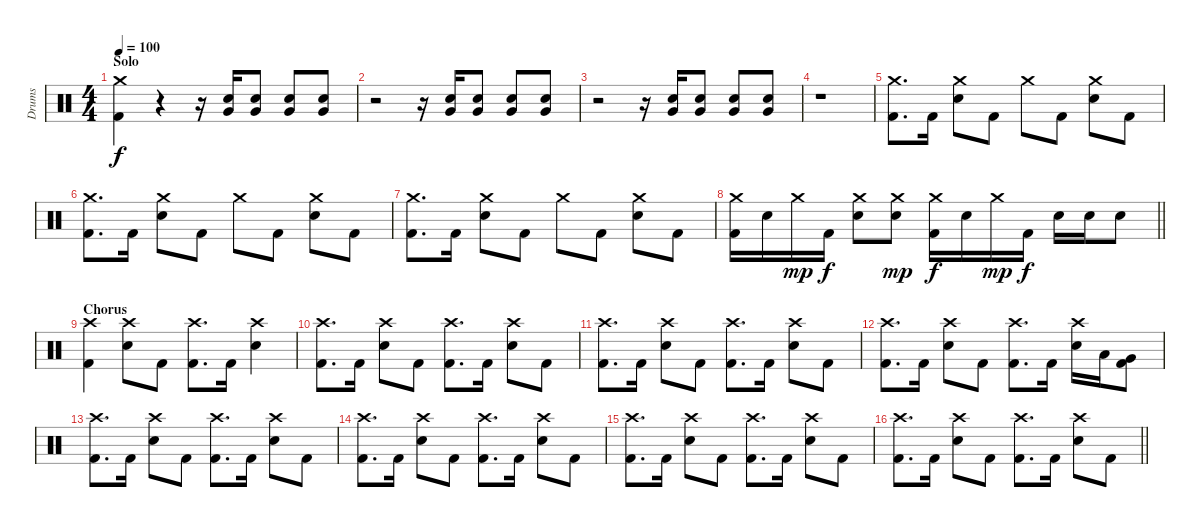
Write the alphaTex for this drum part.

\track ("Drums" "Drums") {instrument percussion}
\staff {score}
\articulation defaults
\ts (4 4)
\section ("" "Solo")
\tempo 100
\clef neutral
\ks c
("Crash medium (hit)" "Kick (hit) 2").4{dy f} r.4 r.16 ("Snare (hit) 2" "Very Low Tom (hit)").16 ("Snare (hit) 2" "Very Low Tom (hit)").8 ("Snare (hit) 2" "Very Low Tom (hit)").8 ("Snare (hit) 2" "Very Low Tom (hit)").8 |
r.2 r.16 ("Snare (hit) 2" "Very Low Tom (hit)").16 ("Snare (hit) 2" "Very Low Tom (hit)").8 ("Snare (hit) 2" "Very Low Tom (hit)").8 ("Snare (hit) 2" "Very Low Tom (hit)").8 |
r.2 r.16 ("Snare (hit) 2" "Very Low Tom (hit)").16 ("Snare (hit) 2" "Very Low Tom (hit)").8 ("Snare (hit) 2" "Very Low Tom (hit)").8 ("Snare (hit) 2" "Very Low Tom (hit)").8 |
r.1 |
("Crash medium (hit)" "Kick (hit) 2").8{d} "Kick (hit) 2".16 ("Crash medium (hit)" "Snare (hit) 2").8 "Kick (hit) 2".8 "Crash medium (hit)".8 "Kick (hit) 2".8 ("Crash medium (hit)" "Snare (hit) 2").8 "Kick (hit) 2".8 |
("Crash medium (hit)" "Kick (hit) 2").8{d} "Kick (hit) 2".16 ("Crash medium (hit)" "Snare (hit) 2").8 "Kick (hit) 2".8 "Crash medium (hit)".8 "Kick (hit) 2".8 ("Crash medium (hit)" "Snare (hit) 2").8 "Kick (hit) 2".8 |
("Crash medium (hit)" "Kick (hit) 2").8{d} "Kick (hit) 2".16 ("Crash medium (hit)" "Snare (hit) 2").8 "Kick (hit) 2".8 "Crash medium (hit)".8 "Kick (hit) 2".8 ("Crash medium (hit)" "Snare (hit) 2").8 "Kick (hit) 2".8 |
\barLineRight lightlight
("Crash medium (hit)" "Kick (hit) 2").16 "Snare (hit) 2".16 "Crash medium (hit)".16{dy mp} "Kick (hit) 2".16{dy f} ("Crash medium (hit)" "Snare (hit) 2").8 ("Crash medium (hit)" "Snare (hit) 2").8{dy mp} ("Crash medium (hit)" "Kick (hit) 2").16{dy f} "Snare (hit) 2".16 "Crash medium (hit)".16{dy mp} "Kick (hit) 2".16{dy f} "Snare (hit) 2".16 "Snare (hit) 2".16 "Snare (hit) 2".8 |
\section ("" "Chorus")
("Crash high (hit)" "Kick (hit) 2").4 ("Crash high (hit)" "Snare (hit) 2").8 "Kick (hit) 2".8 ("Crash high (hit)" "Kick (hit) 2").8{d} "Kick (hit) 2".16 ("Crash high (hit)" "Snare (hit) 2").4 |
("Crash high (hit)" "Kick (hit) 2").8{d} "Kick (hit) 2".16 ("Crash high (hit)" "Snare (hit) 2").8 "Kick (hit) 2".8 ("Crash high (hit)" "Kick (hit) 2").8{d} "Kick (hit) 2".16 ("Crash high (hit)" "Snare (hit) 2").8 "Kick (hit) 2".8 |
("Crash high (hit)" "Kick (hit) 2").8{d} "Kick (hit) 2".16 ("Crash high (hit)" "Snare (hit) 2").8 "Kick (hit) 2".8 ("Crash high (hit)" "Kick (hit) 2").8{d} "Kick (hit) 2".16 ("Crash high (hit)" "Snare (hit) 2").8 "Kick (hit) 2".8 |
("Crash high (hit)" "Kick (hit) 2").8{d} "Kick (hit) 2".16 ("Crash high (hit)" "Snare (hit) 2").8 "Kick (hit) 2".8 ("Crash high (hit)" "Kick (hit) 2").8{d} "Kick (hit) 2".16 ("Crash high (hit)" "Snare (hit) 2").16 "Low Tom (hit)".16 ("Very Low Tom (hit)" "Kick (hit) 2").8 |
("Crash high (hit)" "Kick (hit) 2").8{d} "Kick (hit) 2".16 ("Crash high (hit)" "Snare (hit) 2").8 "Kick (hit) 2".8 ("Crash high (hit)" "Kick (hit) 2").8{d} "Kick (hit) 2".16 ("Crash high (hit)" "Snare (hit) 2").8 "Kick (hit) 2".8 |
("Crash high (hit)" "Kick (hit) 2").8{d} "Kick (hit) 2".16 ("Crash high (hit)" "Snare (hit) 2").8 "Kick (hit) 2".8 ("Crash high (hit)" "Kick (hit) 2").8{d} "Kick (hit) 2".16 ("Crash high (hit)" "Snare (hit) 2").8 "Kick (hit) 2".8 |
("Crash high (hit)" "Kick (hit) 2").8{d} "Kick (hit) 2".16 ("Crash high (hit)" "Snare (hit) 2").8 "Kick (hit) 2".8 ("Crash high (hit)" "Kick (hit) 2").8{d} "Kick (hit) 2".16 ("Crash high (hit)" "Snare (hit) 2").8 "Kick (hit) 2".8 |
\barLineRight lightlight
("Crash high (hit)" "Kick (hit) 2").8{d} "Kick (hit) 2".16 ("Crash high (hit)" "Snare (hit) 2").8 "Kick (hit) 2".8 ("Crash high (hit)" "Kick (hit) 2").8{d} "Kick (hit) 2".16 ("Crash high (hit)" "Snare (hit) 2").8 "Kick (hit) 2".8
